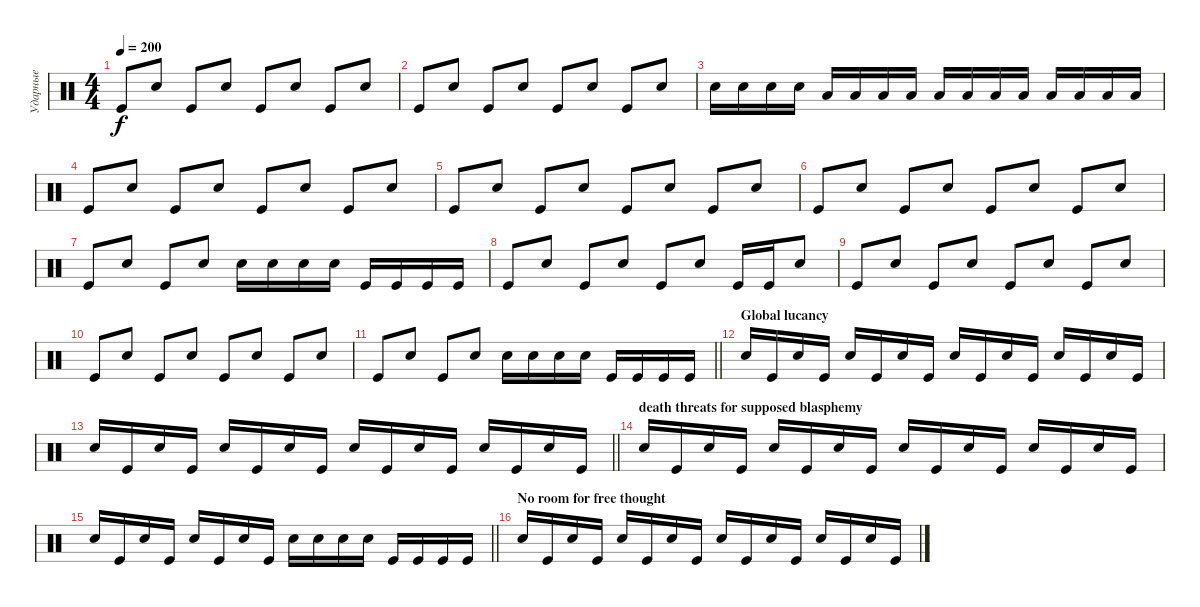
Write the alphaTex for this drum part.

\track ("Ударные" "Ударные") {instrument percussion}
\staff {score}
\articulation defaults
\ts (4 4)
\tempo 200
\clef neutral
\ks c "Kick (hit)".8{dy f} "Snare (hit) 2".8 "Kick (hit)".8 "Snare (hit) 2".8 "Kick (hit)".8 "Snare (hit) 2".8 "Kick (hit)".8 "Snare (hit) 2".8
|
"Kick (hit)".8 "Snare (hit) 2".8 "Kick (hit)".8 "Snare (hit) 2".8 "Kick (hit)".8 "Snare (hit) 2".8 "Kick (hit)".8 "Snare (hit) 2".8 |
"Snare (hit) 2".16 "Snare (hit) 2".16 "Snare (hit) 2".16 "Snare (hit) 2".16 "Low Tom (hit)".16 "Low Tom (hit)".16 "Low Tom (hit)".16 "Low Tom (hit)".16 "Low Tom (hit)".16 "Low Tom (hit)".16 "Low Tom (hit)".16 "Low Tom (hit)".16 "Low Tom (hit)".16 "Low Tom (hit)".16 "Low Tom (hit)".16 "Low Tom (hit)".16 |
"Kick (hit)".8 "Snare (hit) 2".8 "Kick (hit)".8 "Snare (hit) 2".8 "Kick (hit)".8 "Snare (hit) 2".8 "Kick (hit)".8 "Snare (hit) 2".8 |
"Kick (hit)".8 "Snare (hit) 2".8 "Kick (hit)".8 "Snare (hit) 2".8 "Kick (hit)".8 "Snare (hit) 2".8 "Kick (hit)".8 "Snare (hit) 2".8 |
"Kick (hit)".8 "Snare (hit) 2".8 "Kick (hit)".8 "Snare (hit) 2".8 "Kick (hit)".8 "Snare (hit) 2".8 "Kick (hit)".8 "Snare (hit) 2".8 |
"Kick (hit)".8 "Snare (hit) 2".8 "Kick (hit)".8 "Snare (hit) 2".8 "Snare (hit) 2".16 "Snare (hit) 2".16 "Snare (hit) 2".16 "Snare (hit) 2".16 "Kick (hit)".16 "Kick (hit)".16 "Kick (hit)".16 "Kick (hit)".16 |
"Kick (hit)".8 "Snare (hit) 2".8 "Kick (hit)".8 "Snare (hit) 2".8 "Kick (hit)".8 "Snare (hit) 2".8 "Kick (hit)".16 "Kick (hit)".16 "Snare (hit) 2".8 |
"Kick (hit)".8 "Snare (hit) 2".8 "Kick (hit)".8 "Snare (hit) 2".8 "Kick (hit)".8 "Snare (hit) 2".8 "Kick (hit)".8 "Snare (hit) 2".8 |
"Kick (hit)".8 "Snare (hit) 2".8 "Kick (hit)".8 "Snare (hit) 2".8 "Kick (hit)".8 "Snare (hit) 2".8 "Kick (hit)".8 "Snare (hit) 2".8 |
\barLineRight lightlight "Kick (hit)".8 "Snare (hit) 2".8 "Kick (hit)".8 "Snare (hit) 2".8 "Snare (hit) 2".16 "Snare (hit) 2".16 "Snare (hit) 2".16 "Snare (hit) 2".16 "Kick (hit)".16 "Kick (hit)".16 "Kick (hit)".16 "Kick (hit)".16
|
\section ("" "Global lucancy")
"Snare (hit) 2".16 "Kick (hit)".16 "Snare (hit) 2".16 "Kick (hit)".16 "Snare (hit) 2".16 "Kick (hit)".16 "Snare (hit) 2".16 "Kick (hit)".16 "Snare (hit) 2".16 "Kick (hit)".16 "Snare (hit) 2".16 "Kick (hit)".16 "Snare (hit) 2".16 "Kick (hit)".16 "Snare (hit) 2".16 "Kick (hit)".16 |
\barLineRight lightlight "Snare (hit) 2".16 "Kick (hit)".16 "Snare (hit) 2".16 "Kick (hit)".16 "Snare (hit) 2".16 "Kick (hit)".16 "Snare (hit) 2".16 "Kick (hit)".16 "Snare (hit) 2".16 "Kick (hit)".16 "Snare (hit) 2".16 "Kick (hit)".16 "Snare (hit) 2".16 "Kick (hit)".16 "Snare (hit) 2".16 "Kick (hit)".16
|
\section ("" "death threats for supposed blasphemy")
"Snare (hit) 2".16 "Kick (hit)".16 "Snare (hit) 2".16 "Kick (hit)".16 "Snare (hit) 2".16 "Kick (hit)".16 "Snare (hit) 2".16 "Kick (hit)".16 "Snare (hit) 2".16 "Kick (hit)".16 "Snare (hit) 2".16 "Kick (hit)".16 "Snare (hit) 2".16 "Kick (hit)".16 "Snare (hit) 2".16 "Kick (hit)".16 |
\barLineRight lightlight "Snare (hit) 2".16 "Kick (hit)".16 "Snare (hit) 2".16 "Kick (hit)".16 "Snare (hit) 2".16 "Kick (hit)".16 "Snare (hit) 2".16 "Kick (hit)".16 "Snare (hit) 2".16 "Snare (hit) 2".16 "Snare (hit) 2".16 "Snare (hit) 2".16 "Kick (hit)".16 "Kick (hit)".16 "Kick (hit)".16 "Kick (hit)".16
|
\section ("" "No room for free thought")
"Snare (hit) 2".16 "Kick (hit)".16 "Snare (hit) 2".16 "Kick (hit)".16 "Snare (hit) 2".16 "Kick (hit)".16 "Snare (hit) 2".16 "Kick (hit)".16 "Snare (hit) 2".16 "Kick (hit)".16 "Snare (hit) 2".16 "Kick (hit)".16 "Snare (hit) 2".16 "Kick (hit)".16 "Snare (hit) 2".16 "Kick (hit)".16
